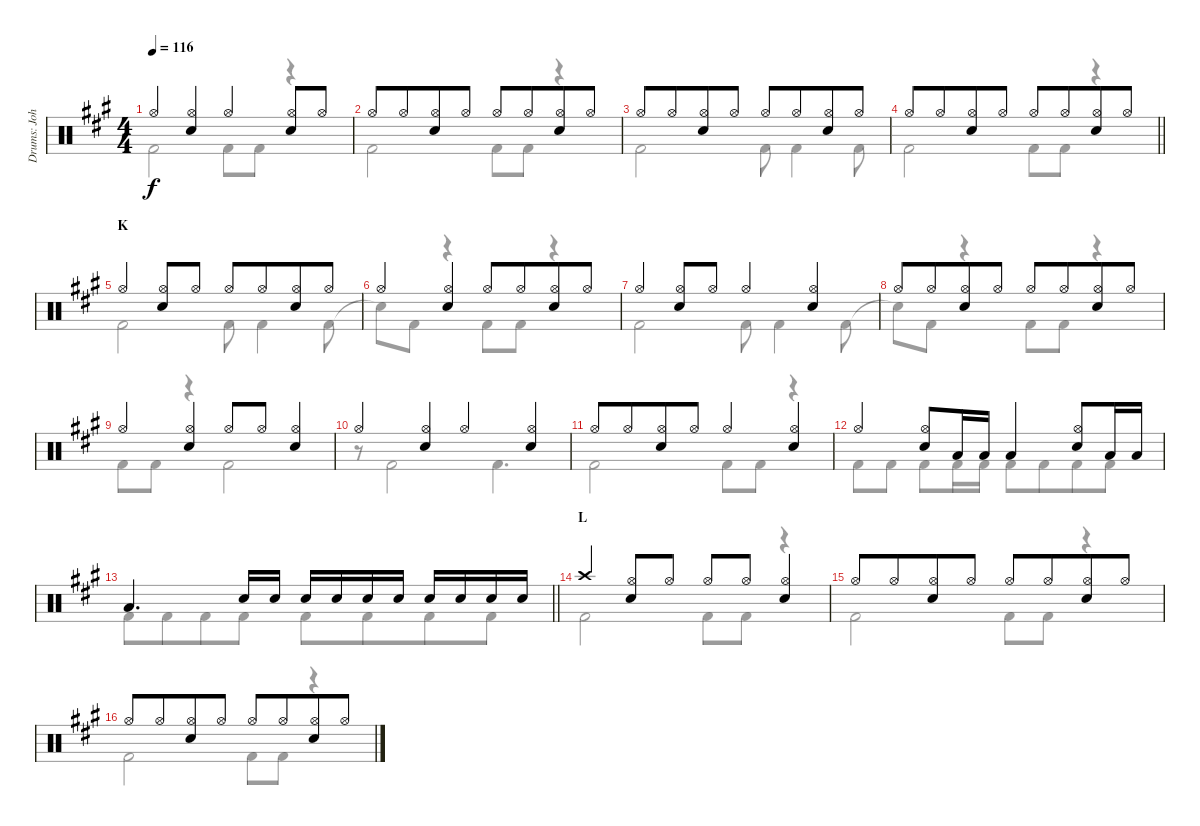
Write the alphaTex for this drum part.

\track ("Drums: John" "Drums: Joh") {instrument percussion}
\staff {score}
\articulation defaults
\voice
\ts (4 4)
\tempo 116
\clef neutral
\ks a "Hi-Hat (open)".4{dy f}
("Hi-Hat (open)" "Electric Snare (hit)").4 "Hi-Hat (open)".4 ("Hi-Hat (open)" "Electric Snare (hit)").8 "Hi-Hat (open)".8 |
"Hi-Hat (open)".8 "Hi-Hat (open)".8{beam merge} ("Hi-Hat (open)" "Electric Snare (hit)").8 "Hi-Hat (open)".8 "Hi-Hat (open)".8 "Hi-Hat (open)".8{beam merge} ("Hi-Hat (open)" "Electric Snare (hit)").8 "Hi-Hat (open)".8 |
"Hi-Hat (open)".8 "Hi-Hat (open)".8{beam merge} ("Hi-Hat (open)" "Electric Snare (hit)").8 "Hi-Hat (open)".8 "Hi-Hat (open)".8 "Hi-Hat (open)".8{beam merge} ("Hi-Hat (open)" "Electric Snare (hit)").8 "Hi-Hat (open)".8 |
\barLineRight lightlight "Hi-Hat (open)".8 "Hi-Hat (open)".8{beam merge}
("Hi-Hat (open)" "Electric Snare (hit)").8 "Hi-Hat (open)".8 "Hi-Hat (open)".8 "Hi-Hat (open)".8{beam merge} ("Hi-Hat (open)" "Electric Snare (hit)").8 "Hi-Hat (open)".8 |
\section ("" "K")
"Hi-Hat (open)".4{beam merge} ("Hi-Hat (open)" "Electric Snare (hit)").8 "Hi-Hat (open)".8 "Hi-Hat (open)".8 "Hi-Hat (open)".8{beam merge} ("Hi-Hat (open)" "Electric Snare (hit)").8 "Hi-Hat (open)".8 |
"Hi-Hat (open)".4{beam merge} ("Hi-Hat (open)" "Electric Snare (hit)").4 "Hi-Hat (open)".8 "Hi-Hat (open)".8{beam merge} ("Hi-Hat (open)" "Electric Snare (hit)").8 "Hi-Hat (open)".8 |
"Hi-Hat (open)".4{beam merge} ("Hi-Hat (open)" "Electric Snare (hit)").8 "Hi-Hat (open)".8 "Hi-Hat (open)".4{beam merge} ("Hi-Hat (open)" "Electric Snare (hit)").4 |
"Hi-Hat (open)".8 "Hi-Hat (open)".8{beam merge} ("Hi-Hat (open)" "Electric Snare (hit)").8 "Hi-Hat (open)".8 "Hi-Hat (open)".8 "Hi-Hat (open)".8{beam merge} ("Hi-Hat (open)" "Electric Snare (hit)").8 "Hi-Hat (open)".8 |
"Hi-Hat (open)".4 ("Hi-Hat (open)" "Electric Snare (hit)").4 "Hi-Hat (open)".8 "Hi-Hat (open)".8 ("Hi-Hat (open)" "Electric Snare (hit)").4 |
"Hi-Hat (open)".4 ("Hi-Hat (open)" "Electric Snare (hit)").4 "Hi-Hat (open)".4 ("Hi-Hat (open)" "Electric Snare (hit)").4 |
"Hi-Hat (open)".8 "Hi-Hat (open)".8{beam merge} ("Hi-Hat (open)" "Electric Snare (hit)").8 "Hi-Hat (open)".8 "Hi-Hat (open)".4{beam merge} ("Hi-Hat (open)" "Electric Snare (hit)").4 |
"Hi-Hat (open)".4{beam merge} ("Hi-Hat (open)" "Electric Snare (hit)").8 "Low Floor Tom (hit)".16 "Low Floor Tom (hit)".16 "Low Floor Tom (hit)".4{beam merge} ("Hi-Hat (open)" "Electric Snare (hit)").8 "Low Floor Tom (hit)".16 "Low Floor Tom (hit)".16 |
\barLineRight lightlight "Low Floor Tom (hit)".4{d} "Electric Snare (hit)".16 "Electric Snare (hit)".16 "Electric Snare (hit)".16 "Electric Snare (hit)".16 "Electric Snare (hit)".16 "Electric Snare (hit)".16 "Electric Snare (hit)".16 "Electric Snare (hit)".16 "Electric Snare (hit)".16 "Electric Snare (hit)".16
|
\section ("" "L")
"Crash high (hit)".4 ("Hi-Hat (open)" "Electric Snare (hit)").8 "Hi-Hat (open)".8 "Hi-Hat (open)".8 "Hi-Hat (open)".8 ("Hi-Hat (open)" "Electric Snare (hit)").4 |
"Hi-Hat (open)".8 "Hi-Hat (open)".8{beam merge} ("Hi-Hat (open)" "Electric Snare (hit)").8 "Hi-Hat (open)".8 "Hi-Hat (open)".8 "Hi-Hat (open)".8{beam merge} ("Hi-Hat (open)" "Electric Snare (hit)").8 "Hi-Hat (open)".8 |
"Hi-Hat (open)".8 "Hi-Hat (open)".8{beam merge} ("Hi-Hat (open)" "Electric Snare (hit)").8 "Hi-Hat (open)".8 "Hi-Hat (open)".8 "Hi-Hat (open)".8{beam merge} ("Hi-Hat (open)" "Electric Snare (hit)").8 "Hi-Hat (open)".8
\voice
\clef neutral
\ottava regular
\simile none
\ks a "Kick (hit) 2".2{dy f} "Kick (hit) 2".8 "Kick (hit) 2".8
r.4 |
"Kick (hit) 2".2 "Kick (hit) 2".8 "Kick (hit) 2".8 r.4 |
"Kick (hit) 2".2 "Kick (hit) 2".8 "Kick (hit) 2".4 "Kick (hit) 2".8 |
\barLineRight lightlight "Kick (hit) 2".2 "Kick (hit) 2".8 "Kick (hit) 2".8
r.4 |
"Kick (hit) 2".2 "Kick (hit) 2".8 "Kick (hit) 2".4 "Kick (hit) 2".8 |
"Snare (hit)"{t}.8 "Kick (hit) 2".8 r.4 "Kick (hit) 2".8 "Kick (hit) 2".8 r.4 |
"Kick (hit) 2".2 "Kick (hit) 2".8 "Kick (hit) 2".4 "Kick (hit) 2".8 |
"Snare (hit)"{t}.8 "Kick (hit) 2".8 r.4 "Kick (hit) 2".8 "Kick (hit) 2".8 r.4 |
"Kick (hit) 2".8 "Kick (hit) 2".8 r.4 "Kick (hit) 2".2 |
r.8 "Kick (hit) 2".2 "Kick (hit) 2".4{d} |
"Kick (hit) 2".2 "Kick (hit) 2".8 "Kick (hit) 2".8 r.4 |
"Kick (hit) 2".8 "Kick (hit) 2".8 "Kick (hit) 2".8 "Kick (hit) 2".16 "Kick (hit) 2".16 "Kick (hit) 2".8 "Kick (hit) 2".8{beam merge} "Kick (hit) 2".8 "Kick (hit) 2".8 |
\barLineRight lightlight "Kick (hit) 2".8 "Kick (hit) 2".8{beam merge} "Kick (hit) 2".8 "Kick (hit) 2".8 "Kick (hit) 2".8 "Kick (hit) 2".8{beam merge} "Kick (hit) 2".8 "Kick (hit) 2".8
|
"Kick (hit) 2".2 "Kick (hit) 2".8 "Kick (hit) 2".8 r.4 |
"Kick (hit) 2".2 "Kick (hit) 2".8 "Kick (hit) 2".8 r.4 |
"Kick (hit) 2".2 "Kick (hit) 2".8 "Kick (hit) 2".8 r.4
